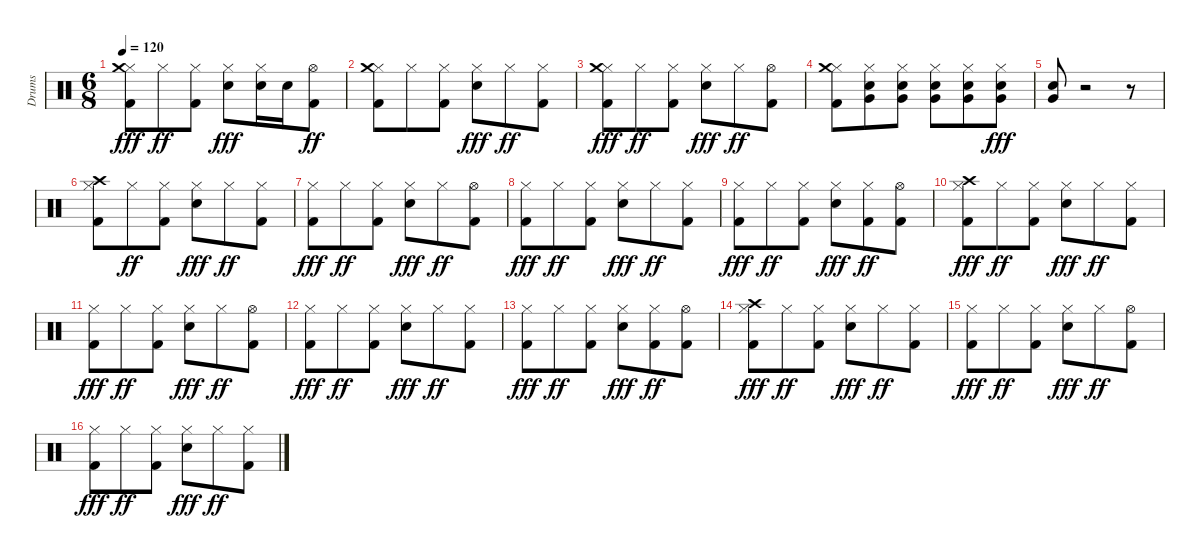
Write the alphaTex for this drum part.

\track ("Drums" "Drums") {instrument percussion}
\staff {score}
\articulation defaults
\ts (6 8)
\tempo 120
\clef neutral
\ks c
("Hi-Hat (closed)" "Kick (hit) 2" "Crash medium (hit)").8{dy fff} "Hi-Hat (closed)".8{dy ff} ("Hi-Hat (closed)" "Kick (hit) 2").8 ("Hi-Hat (closed)" "Snare (hit) 2").8{dy fff} ("Hi-Hat (closed)" "Snare (hit) 2").16 "Snare (hit) 2".16 ("Hi-Hat (open)" "Kick (hit) 2").8{dy ff} |
("Hi-Hat (closed)" "Kick (hit) 2" "Crash medium (hit)").8 "Hi-Hat (closed)".8 ("Hi-Hat (closed)" "Kick (hit) 2").8 ("Hi-Hat (closed)" "Snare (hit) 2").8{dy fff} "Hi-Hat (closed)".8{dy ff} ("Hi-Hat (closed)" "Kick (hit) 2").8 |
("Hi-Hat (closed)" "Kick (hit) 2" "Crash medium (hit)").8{dy fff} "Hi-Hat (closed)".8{dy ff} ("Hi-Hat (closed)" "Kick (hit) 2").8 ("Hi-Hat (closed)" "Snare (hit) 2").8{dy fff} "Hi-Hat (closed)".8{dy ff} ("Hi-Hat (open)" "Kick (hit) 2").8 |
("Hi-Hat (closed)" "Kick (hit) 2" "Crash medium (hit)").8 ("Hi-Hat (closed)" "Snare (hit) 2" "Very Low Tom (hit)").8 ("Hi-Hat (closed)" "Very Low Tom (hit)" "Snare (hit) 2").8 ("Hi-Hat (closed)" "Very Low Tom (hit)" "Snare (hit) 2").8 ("Hi-Hat (closed)" "Very Low Tom (hit)" "Snare (hit) 2").8 ("Hi-Hat (closed)" "Very Low Tom (hit)" "Snare (hit) 2").8{dy fff} |
("Very Low Tom (hit)" "Snare (hit) 2").8 r.2 r.8 |
("Crash high (hit)" "Hi-Hat (closed)" "Kick (hit) 2").8 "Hi-Hat (closed)".8{dy ff} ("Hi-Hat (closed)" "Kick (hit) 2").8 ("Hi-Hat (closed)" "Snare (hit) 2").8{dy fff} "Hi-Hat (closed)".8{dy ff} ("Hi-Hat (closed)" "Kick (hit) 2").8 |
("Hi-Hat (closed)" "Kick (hit) 2").8{dy fff} "Hi-Hat (closed)".8{dy ff} ("Hi-Hat (closed)" "Kick (hit) 2").8 ("Hi-Hat (closed)" "Snare (hit) 2").8{dy fff} "Hi-Hat (closed)".8{dy ff} ("Hi-Hat (open)" "Kick (hit) 2").8 |
("Hi-Hat (closed)" "Kick (hit) 2").8{dy fff} "Hi-Hat (closed)".8{dy ff} ("Hi-Hat (closed)" "Kick (hit) 2").8 ("Hi-Hat (closed)" "Snare (hit) 2").8{dy fff} "Hi-Hat (closed)".8{dy ff} ("Hi-Hat (closed)" "Kick (hit) 2").8 |
("Hi-Hat (closed)" "Kick (hit) 2").8{dy fff} "Hi-Hat (closed)".8{dy ff} ("Hi-Hat (closed)" "Kick (hit) 2").8 ("Hi-Hat (closed)" "Snare (hit) 2").8{dy fff} ("Hi-Hat (closed)" "Kick (hit) 2").8{dy ff} ("Hi-Hat (open)" "Kick (hit) 2").8 |
("Hi-Hat (closed)" "Kick (hit) 2" "Crash high (hit)").8{dy fff} "Hi-Hat (closed)".8{dy ff} ("Hi-Hat (closed)" "Kick (hit) 2").8 ("Hi-Hat (closed)" "Snare (hit) 2").8{dy fff} "Hi-Hat (closed)".8{dy ff} ("Hi-Hat (closed)" "Kick (hit) 2").8 |
("Hi-Hat (closed)" "Kick (hit) 2").8{dy fff} "Hi-Hat (closed)".8{dy ff} ("Hi-Hat (closed)" "Kick (hit) 2").8 ("Hi-Hat (closed)" "Snare (hit) 2").8{dy fff} "Hi-Hat (closed)".8{dy ff} ("Hi-Hat (open)" "Kick (hit) 2").8 |
("Hi-Hat (closed)" "Kick (hit) 2").8{dy fff} "Hi-Hat (closed)".8{dy ff} ("Hi-Hat (closed)" "Kick (hit) 2").8 ("Hi-Hat (closed)" "Snare (hit) 2").8{dy fff} "Hi-Hat (closed)".8{dy ff} ("Hi-Hat (closed)" "Kick (hit) 2").8 |
("Hi-Hat (closed)" "Kick (hit) 2").8{dy fff} "Hi-Hat (closed)".8{dy ff} ("Hi-Hat (closed)" "Kick (hit) 2").8 ("Hi-Hat (closed)" "Snare (hit) 2").8{dy fff} ("Hi-Hat (closed)" "Kick (hit) 2").8{dy ff} ("Hi-Hat (open)" "Kick (hit) 2").8 |
("Crash high (hit)" "Hi-Hat (closed)" "Kick (hit) 2").8{dy fff} "Hi-Hat (closed)".8{dy ff} ("Hi-Hat (closed)" "Kick (hit) 2").8 ("Hi-Hat (closed)" "Snare (hit) 2").8{dy fff} "Hi-Hat (closed)".8{dy ff} ("Hi-Hat (closed)" "Kick (hit) 2").8 |
("Hi-Hat (closed)" "Kick (hit) 2").8{dy fff} "Hi-Hat (closed)".8{dy ff} ("Hi-Hat (closed)" "Kick (hit) 2").8 ("Hi-Hat (closed)" "Snare (hit) 2").8{dy fff} "Hi-Hat (closed)".8{dy ff} ("Hi-Hat (open)" "Kick (hit) 2").8 |
("Hi-Hat (closed)" "Kick (hit) 2").8{dy fff} "Hi-Hat (closed)".8{dy ff} ("Hi-Hat (closed)" "Kick (hit) 2").8 ("Hi-Hat (closed)" "Snare (hit) 2").8{dy fff} "Hi-Hat (closed)".8{dy ff} ("Hi-Hat (closed)" "Kick (hit) 2").8
